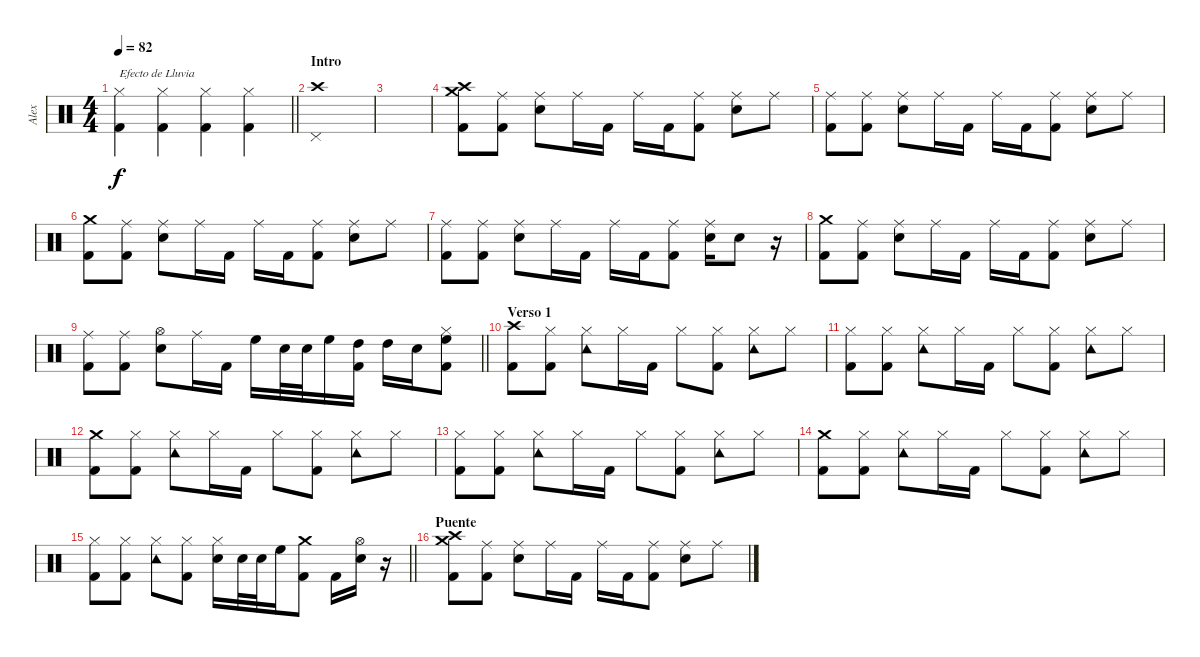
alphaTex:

\track ("Alex" "Alex") {instrument percussion}
\staff {score}
\articulation defaults
\ts (4 4)
\section ("" "")
\tempo 82
\clef neutral
\barLineRight lightlight
\ks c
("Hi-Hat (closed)" "Kick (hit) 2").4{txt "Efecto de Lluvia" dy f volume 5} ("Hi-Hat (closed)" "Kick (hit) 2").4 ("Hi-Hat (closed)" "Kick (hit) 2").4 ("Hi-Hat (closed)" "Kick (hit) 2").4 |
\section ("" "Intro")
("Pedal Hi-Hat (hit)" "Crash high (hit)").1 |
|
("Crash medium (hit)" "Crash high (hit)" "Kick (hit) 2").8 ("Ride (middle)" "Kick (hit) 2").8 ("Ride (middle)" "Electric Snare (hit)").8 "Ride (middle)".16 "Kick (hit) 2".16 "Ride (middle)".16 "Kick (hit) 2".16 ("Ride (middle)" "Kick (hit) 2").8 ("Ride (middle)" "Electric Snare (hit)").8 "Ride (middle)".8 |
("Ride (middle)" "Kick (hit) 2").8 ("Ride (middle)" "Kick (hit) 2").8 ("Ride (middle)" "Electric Snare (hit)").8 "Ride (middle)".16 "Kick (hit) 2".16 "Ride (middle)".16 "Kick (hit) 2".16 ("Ride (middle)" "Kick (hit) 2").8 ("Ride (middle)" "Electric Snare (hit)").8 "Ride (middle)".8 |
("Crash medium (hit)" "Kick (hit) 2").8 ("Ride (middle)" "Kick (hit) 2").8 ("Ride (middle)" "Electric Snare (hit)").8 "Ride (middle)".16 "Kick (hit) 2".16 "Ride (middle)".16 "Kick (hit) 2".16 ("Ride (middle)" "Kick (hit) 2").8 ("Ride (middle)" "Electric Snare (hit)").8 "Ride (middle)".8 |
("Ride (middle)" "Kick (hit) 2").8 ("Ride (middle)" "Kick (hit) 2").8 ("Ride (middle)" "Electric Snare (hit)").8 "Ride (middle)".16 "Kick (hit) 2".16 "Ride (middle)".16 "Kick (hit) 2".16 ("Ride (middle)" "Kick (hit) 2").8 ("Ride (middle)" "Electric Snare (hit)").16 "Electric Snare (hit)".8 r.16 |
("Crash medium (hit)" "Kick (hit) 2").8 ("Ride (middle)" "Kick (hit) 2").8 ("Ride (middle)" "Electric Snare (hit)").8 "Ride (middle)".16 "Kick (hit) 2".16 "Ride (middle)".16 "Kick (hit) 2".16 ("Ride (middle)" "Kick (hit) 2").8 ("Ride (middle)" "Electric Snare (hit)").8 "Ride (middle)".8 |
\barLineRight lightlight
("Ride (middle)" "Kick (hit) 2").8 ("Ride (middle)" "Kick (hit) 2").8 ("Hi-Hat (open)" "Electric Snare (hit)").8 "Ride (middle)".16 "Kick (hit) 2".16 "High Floor Tom (hit)".16 "Electric Snare (hit)".32 "Electric Snare (hit)".32 "High Floor Tom (hit)".16 ("Kick (hit) 2" "High Tom (hit)").16 "High Tom (hit)".16 "Electric Snare (hit)".16 ("Kick (hit) 2" "High Floor Tom (hit)" "Hi-Hat (closed)").8 |
\section ("" "Verso 1")
("Crash high (hit)" "Kick (hit) 2").8 ("Hi-Hat (closed)" "Kick (hit) 2").8{volume 11} ("Hi-Hat (closed)" "Tambourine (hit)").8 "Hi-Hat (closed)".16 "Kick (hit) 2".16 "Hi-Hat (closed)".8 ("Hi-Hat (closed)" "Kick (hit) 2").8 ("Hi-Hat (closed)" "Tambourine (hit)").8 "Hi-Hat (closed)".8 |
("Hi-Hat (closed)" "Kick (hit) 2").8 ("Hi-Hat (closed)" "Kick (hit) 2").8 ("Hi-Hat (closed)" "Tambourine (hit)").8 "Hi-Hat (closed)".16 "Kick (hit) 2".16 "Hi-Hat (closed)".8 ("Hi-Hat (closed)" "Kick (hit) 2").8 ("Hi-Hat (closed)" "Tambourine (hit)").8 "Hi-Hat (closed)".8 |
("Crash medium (hit)" "Kick (hit) 2").8 ("Hi-Hat (closed)" "Kick (hit) 2").8 ("Hi-Hat (closed)" "Tambourine (hit)").8 "Hi-Hat (closed)".16 "Kick (hit) 2".16 "Hi-Hat (closed)".8 ("Hi-Hat (closed)" "Kick (hit) 2").8 ("Hi-Hat (closed)" "Tambourine (hit)").8 "Hi-Hat (closed)".8 |
("Hi-Hat (closed)" "Kick (hit) 2").8 ("Hi-Hat (closed)" "Kick (hit) 2").8 ("Hi-Hat (closed)" "Tambourine (hit)").8 "Hi-Hat (closed)".16 "Kick (hit) 2".16 "Hi-Hat (closed)".8 ("Hi-Hat (closed)" "Kick (hit) 2").8 ("Hi-Hat (closed)" "Tambourine (hit)").8 "Hi-Hat (closed)".8 |
("Crash medium (hit)" "Kick (hit) 2").8 ("Hi-Hat (closed)" "Kick (hit) 2").8 ("Hi-Hat (closed)" "Tambourine (hit)").8 "Hi-Hat (closed)".16 "Kick (hit) 2".16 "Hi-Hat (closed)".8 ("Hi-Hat (closed)" "Kick (hit) 2").8 ("Hi-Hat (closed)" "Tambourine (hit)").8 "Hi-Hat (closed)".8 |
\barLineRight lightlight
("Hi-Hat (closed)" "Kick (hit) 2").8 ("Hi-Hat (closed)" "Kick (hit) 2").8 ("Hi-Hat (closed)" "Tambourine (hit)").8 ("Hi-Hat (closed)" "Kick (hit) 2").8 ("Hi-Hat (closed)" "Electric Snare (hit)").16{volume 14} "Electric Snare (hit)".32 "Electric Snare (hit)".32 "High Floor Tom (hit)".16 ("Crash medium (hit)" "Kick (hit) 2").8 "Kick (hit) 2".16 ("Hi-Hat (open)" "Electric Snare (hit)").16 r.16 |
\section ("" "Puente")
("Crash high (hit)" "Crash medium (hit)" "Kick (hit) 2").8 ("Ride (middle)" "Kick (hit) 2").8 ("Ride (middle)" "Electric Snare (hit)").8 "Ride (middle)".16 "Kick (hit) 2".16 "Ride (middle)".16 "Kick (hit) 2".16 ("Ride (middle)" "Kick (hit) 2").8 ("Ride (middle)" "Electric Snare (hit)").8 "Ride (middle)".8
